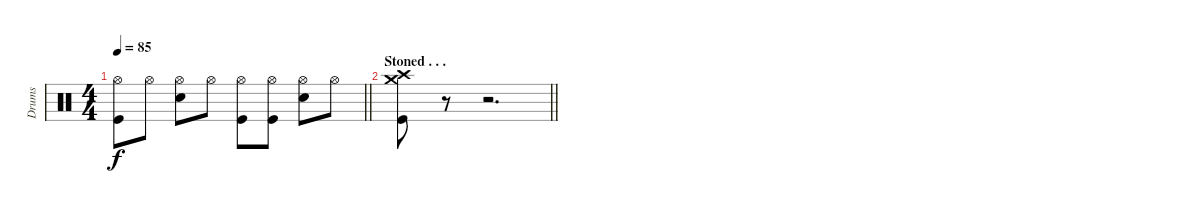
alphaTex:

\track ("Drums" "Drums") {instrument percussion}
\staff {score}
\articulation defaults
\ts (4 4)
\tempo 85
\clef neutral
\barLineRight lightlight
\ks c
("Hi-Hat (open)" "Kick (hit)").8{dy f} "Hi-Hat (open)".8 ("Hi-Hat (open)" "Snare (hit) 2").8 "Hi-Hat (open)".8 ("Hi-Hat (open)" "Kick (hit)").8 ("Hi-Hat (open)" "Kick (hit)").8 ("Hi-Hat (open)" "Snare (hit) 2").8 "Hi-Hat (open)".8 |
\section ("" "Stoned . . .")
\barLineRight lightlight
("Crash high (hit)" "Crash medium (hit)" "Kick (hit)").8 r.8 r.2{d}
